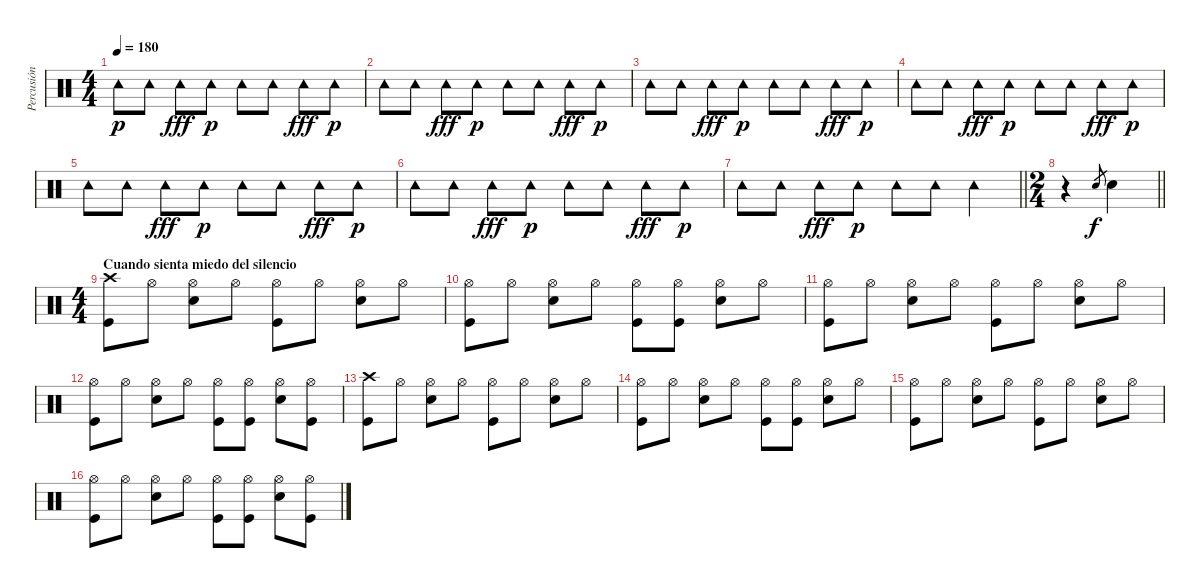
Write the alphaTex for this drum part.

\track ("Percusión" "Percusión") {instrument percussion}
\staff {score}
\articulation defaults
\ts (4 4)
\tempo 180
\clef neutral
\ks c "Tambourine (hit)".8{dy p} "Tambourine (hit)".8 "Tambourine (hit)".8{dy fff} "Tambourine (hit)".8{dy p} "Tambourine (hit)".8 "Tambourine (hit)".8 "Tambourine (hit)".8{dy fff} "Tambourine (hit)".8{dy p}
|
"Tambourine (hit)".8 "Tambourine (hit)".8 "Tambourine (hit)".8{dy fff} "Tambourine (hit)".8{dy p} "Tambourine (hit)".8 "Tambourine (hit)".8 "Tambourine (hit)".8{dy fff} "Tambourine (hit)".8{dy p} |
"Tambourine (hit)".8 "Tambourine (hit)".8 "Tambourine (hit)".8{dy fff} "Tambourine (hit)".8{dy p} "Tambourine (hit)".8 "Tambourine (hit)".8 "Tambourine (hit)".8{dy fff} "Tambourine (hit)".8{dy p} |
"Tambourine (hit)".8 "Tambourine (hit)".8 "Tambourine (hit)".8{dy fff} "Tambourine (hit)".8{dy p} "Tambourine (hit)".8 "Tambourine (hit)".8 "Tambourine (hit)".8{dy fff} "Tambourine (hit)".8{dy p} |
"Tambourine (hit)".8 "Tambourine (hit)".8 "Tambourine (hit)".8{dy fff} "Tambourine (hit)".8{dy p} "Tambourine (hit)".8 "Tambourine (hit)".8 "Tambourine (hit)".8{dy fff} "Tambourine (hit)".8{dy p} |
"Tambourine (hit)".8 "Tambourine (hit)".8 "Tambourine (hit)".8{dy fff} "Tambourine (hit)".8{dy p} "Tambourine (hit)".8 "Tambourine (hit)".8 "Tambourine (hit)".8{dy fff} "Tambourine (hit)".8{dy p} |
\barLineRight lightlight "Tambourine (hit)".8 "Tambourine (hit)".8 "Tambourine (hit)".8{dy fff} "Tambourine (hit)".8{dy p} "Tambourine (hit)".8 "Tambourine (hit)".8 "Tambourine (hit)".4
|
\ts (2 4)
\barLineRight lightlight
r.4 "Electric Snare (hit)".8{gr dy f} "Electric Snare (hit)".4 |
\ts (4 4)
\section ("" "Cuando sienta miedo del silencio")
("Crash high (hit)" "Kick (hit)").8 "Hi-Hat (open)".8 ("Hi-Hat (open)" "Electric Snare (hit)").8 "Hi-Hat (open)".8 ("Hi-Hat (open)" "Kick (hit)").8 "Hi-Hat (open)".8 ("Hi-Hat (open)" "Electric Snare (hit)").8 "Hi-Hat (open)".8 |
("Hi-Hat (open)" "Kick (hit)").8 "Hi-Hat (open)".8 ("Hi-Hat (open)" "Electric Snare (hit)").8 "Hi-Hat (open)".8 ("Hi-Hat (open)" "Kick (hit)").8 ("Hi-Hat (open)" "Kick (hit)").8 ("Hi-Hat (open)" "Electric Snare (hit)").8 "Hi-Hat (open)".8 |
("Hi-Hat (open)" "Kick (hit)").8 "Hi-Hat (open)".8 ("Hi-Hat (open)" "Electric Snare (hit)").8 "Hi-Hat (open)".8 ("Hi-Hat (open)" "Kick (hit)").8 "Hi-Hat (open)".8 ("Hi-Hat (open)" "Electric Snare (hit)").8 "Hi-Hat (open)".8 |
("Hi-Hat (open)" "Kick (hit)").8 "Hi-Hat (open)".8 ("Hi-Hat (open)" "Electric Snare (hit)").8 "Hi-Hat (open)".8 ("Hi-Hat (open)" "Kick (hit)").8 ("Hi-Hat (open)" "Kick (hit)").8 ("Hi-Hat (open)" "Electric Snare (hit)").8 ("Hi-Hat (open)" "Kick (hit)").8 |
("Crash high (hit)" "Kick (hit)").8 "Hi-Hat (open)".8 ("Hi-Hat (open)" "Electric Snare (hit)").8 "Hi-Hat (open)".8 ("Hi-Hat (open)" "Kick (hit)").8 "Hi-Hat (open)".8 ("Hi-Hat (open)" "Electric Snare (hit)").8 "Hi-Hat (open)".8 |
("Hi-Hat (open)" "Kick (hit)").8 "Hi-Hat (open)".8 ("Hi-Hat (open)" "Electric Snare (hit)").8 "Hi-Hat (open)".8 ("Hi-Hat (open)" "Kick (hit)").8 ("Hi-Hat (open)" "Kick (hit)").8 ("Hi-Hat (open)" "Electric Snare (hit)").8 "Hi-Hat (open)".8 |
("Hi-Hat (open)" "Kick (hit)").8 "Hi-Hat (open)".8 ("Hi-Hat (open)" "Electric Snare (hit)").8 "Hi-Hat (open)".8 ("Hi-Hat (open)" "Kick (hit)").8 "Hi-Hat (open)".8 ("Hi-Hat (open)" "Electric Snare (hit)").8 "Hi-Hat (open)".8 |
("Hi-Hat (open)" "Kick (hit)").8 "Hi-Hat (open)".8 ("Hi-Hat (open)" "Electric Snare (hit)").8 "Hi-Hat (open)".8 ("Hi-Hat (open)" "Kick (hit)").8 ("Hi-Hat (open)" "Kick (hit)").8 ("Hi-Hat (open)" "Electric Snare (hit)").8 ("Hi-Hat (open)" "Kick (hit)").8
